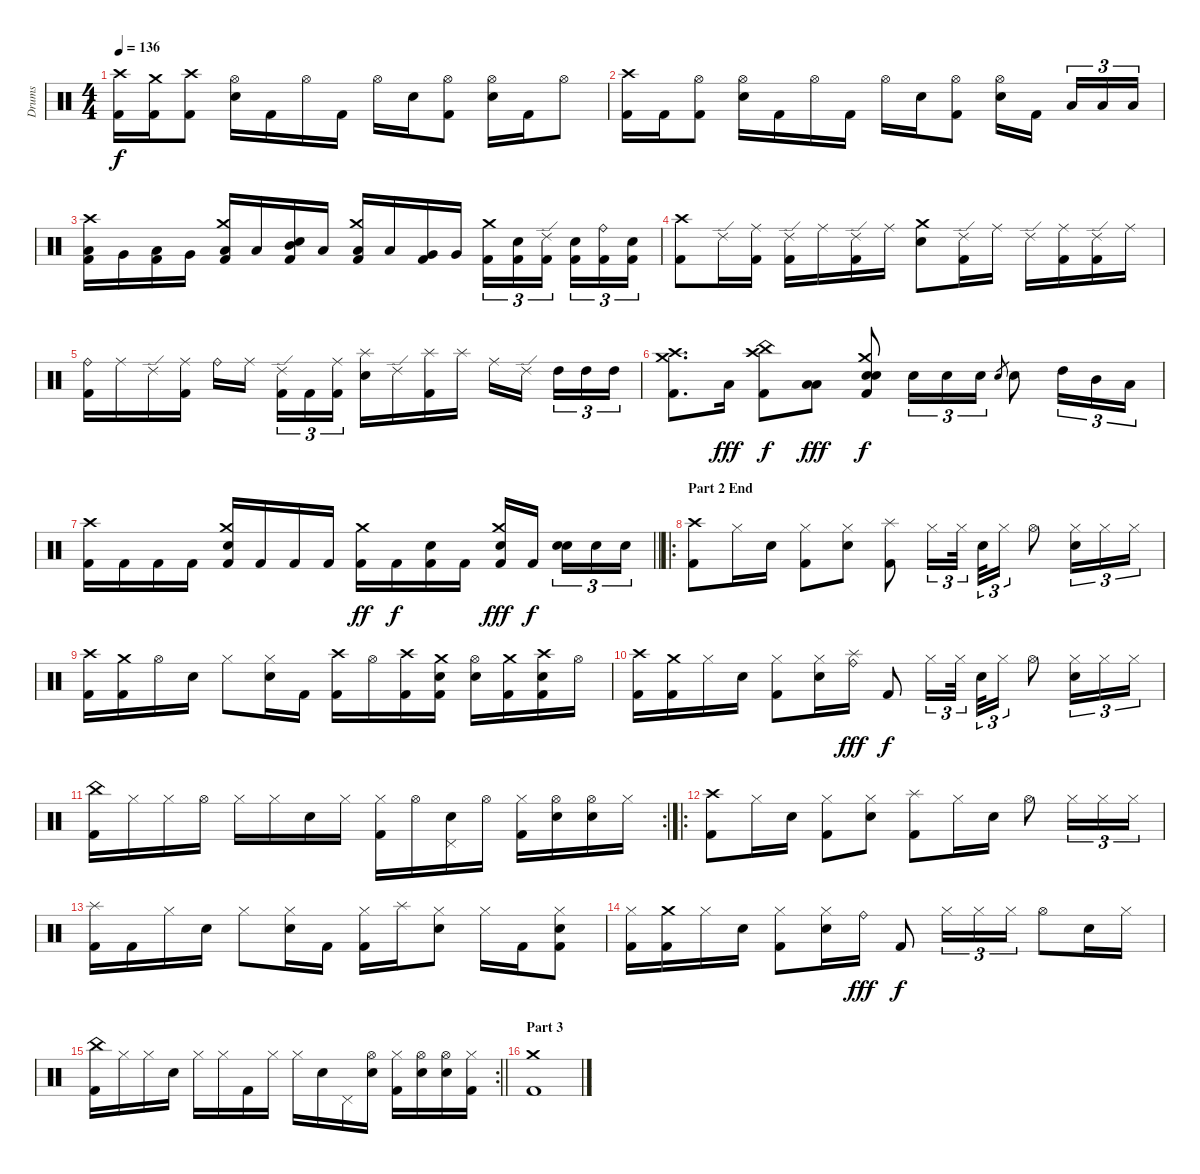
\track ("Drums" "Drums") {instrument percussion}
\staff {score}
\articulation defaults
\ts (4 4)
\tempo 136
\clef neutral
\ks c
("Crash high (hit)" "Kick (hit) 2").16{dy f} ("Crash medium (hit)" "Kick (hit) 2").16 ("Crash high (hit)" "Kick (hit) 2").8 ("Hi-Hat (open)" "Electric Snare (hit)").16 "Kick (hit) 2".16 "Hi-Hat (open)".16 "Kick (hit) 2".16 "Hi-Hat (open)".16 "Electric Snare (hit)".16 ("Hi-Hat (open)" "Kick (hit) 2").8 ("Hi-Hat (open)" "Electric Snare (hit)").16 "Kick (hit) 2".16 "Hi-Hat (open)".8 |
("Crash high (hit)" "Kick (hit) 2").16 "Kick (hit) 2".16 ("Hi-Hat (open)" "Kick (hit) 2").8 ("Hi-Hat (open)" "Electric Snare (hit)").16 "Kick (hit) 2".16 "Hi-Hat (open)".16 "Kick (hit) 2".16 "Hi-Hat (open)".16 "Electric Snare (hit)".16 ("Hi-Hat (open)" "Kick (hit) 2").8 ("Hi-Hat (open)" "Electric Snare (hit)").16 "Kick (hit) 2".16{beam splitsecondary} "Low Tom (hit)".16{tu (3 2)} "Low Tom (hit)".16{tu (3 2)} "Low Tom (hit)".16{tu (3 2)} |
("Crash high (hit)" "Low Tom (hit)" "Kick (hit) 2").16 "Very Low Tom (hit)".16 ("Low Floor Tom (hit)" "Kick (hit) 2").16 "Very Low Tom (hit)".16 ("Crash medium (hit)" "Low Floor Tom (hit)" "Kick (hit) 2").16 "Low Floor Tom (hit)".16 ("Mid Tom (hit)" "Electric Snare (hit)" "Kick (hit) 2").16 "Low Floor Tom (hit)".16 ("Crash medium (hit)" "Low Floor Tom (hit)" "Kick (hit) 2").16 "Low Tom (hit)".16 ("Very Low Tom (hit)" "Kick (hit) 2").16 "Very Low Tom (hit)".16 ("Crash medium (hit)" "Kick (hit) 2").16{tu (3 2)} ("Electric Snare (hit)" "Kick (hit) 2").16{tu (3 2)} ("Ride (edge) 2" "Kick (hit) 2").16{tu (3 2) beam splitsecondary} ("Electric Snare (hit)" "Kick (hit) 2").16{tu (3 2)} ("Ride (bell)" "Kick (hit) 2").16{tu (3 2)} ("Electric Snare (hit)" "Kick (hit) 2").16{tu (3 2)} |
("Crash high (hit)" "Kick (hit) 2").8 "Ride (edge) 2".16 ("Ride (middle)" "Kick (hit) 2").16 ("Ride (edge) 2" "Kick (hit) 2").16 "Ride (middle)".16 ("Ride (edge) 2" "Kick (hit) 2").16 "Ride (middle)".16 ("Crash medium (hit)" "Electric Snare (hit)").8 ("Ride (edge) 2" "Kick (hit) 2").16 "Ride (middle)".16 "Ride (edge) 2".16 ("Ride (middle)" "Kick (hit) 2").16 ("Ride (edge) 2" "Kick (hit) 2").16 "Ride (middle)".16 |
("Ride (bell)" "Kick (hit) 2").16 "Ride (middle)".16 "Ride (edge) 2".16 ("Ride (middle)" "Kick (hit) 2").16 "Ride (bell)".16 "Ride (middle)".16{beam splitsecondary} ("Ride (edge) 2" "Kick (hit) 2").16{tu (3 2)} "Kick (hit) 2".16{tu (3 2)} ("Ride (middle)" "Kick (hit) 2").16{tu (3 2)} ("Splash (hit)" "Electric Snare (hit)").16 "Ride (edge) 2".16 ("Splash (hit)" "Kick (hit) 2").16 "Splash (hit)".16 "Ride (middle)".16 "Ride (edge) 2".16{beam splitsecondary} "High Tom (hit)".16{tu (3 2)} "High Tom (hit)".16{tu (3 2)} "High Tom (hit)".16{tu (3 2)} |
("Crash high (hit)" "Crash medium (hit)" "Kick (hit) 2").8{d} "Low Floor Tom (hit)".16{dy fff} ("Crash high (hit)" "China (hit)" "Kick (hit) 2").8{dy f} ("Low Tom (hit)" "Low Floor Tom (hit)").8{dy fff} ("Crash medium (hit)" "Snare (hit) 2" "Electric Snare (hit)" "Kick (hit) 2").8{dy f} "Electric Snare (hit)".16{tu (3 2)} "Electric Snare (hit)".16{tu (3 2)} "Electric Snare (hit)".16{tu (3 2)} "Electric Snare (hit)".8{gr} "Electric Snare (hit)".8 "High Tom (hit)".16{tu (3 2)} "Mid Tom (hit)".16{tu (3 2)} "Low Tom (hit)".16{tu (3 2)} |
\barLineRight lightlight
("Crash high (hit)" "Kick (hit) 2").16 "Kick (hit) 2".16 "Kick (hit) 2".16 "Kick (hit) 2".16 ("Crash medium (hit)" "Electric Snare (hit)" "Kick (hit) 2").16 "Kick (hit) 2".16 "Kick (hit) 2".16 "Kick (hit) 2".16 ("Crash medium (hit)" "Kick (hit) 2").16{dy ff} "Kick (hit) 2".16{dy f} ("Electric Snare (hit)" "Kick (hit) 2").16 "Kick (hit) 2".16 ("Crash medium (hit)" "Electric Snare (hit)" "Kick (hit) 2").16{dy fff} "Kick (hit) 2".16{dy f beam splitsecondary} ("Snare (hit) 2" "Electric Snare (hit)").16{tu (3 2)} "Electric Snare (hit)".16{tu (3 2)} "Electric Snare (hit)".16{tu (3 2)} |
\ro
\section ("" "Part 2 End")
("Crash high (hit)" "Kick (hit) 2").8 "Hi-Hat (closed)".16 "Electric Snare (hit)".16 ("Hi-Hat (closed)" "Kick (hit) 2").8 ("Hi-Hat (closed)" "Electric Snare (hit)").8 ("Splash (hit)" "Kick (hit) 2").8 "Hi-Hat (closed)".16{tu (3 2)} "Hi-Hat (closed)".32{tu (3 2) beam splitsecondary} "Electric Snare (hit)".32{tu (3 2)} "Hi-Hat (closed)".16{tu (3 2)} "Hi-Hat (open)".8 ("Hi-Hat (closed)" "Electric Snare (hit)").16{tu (3 2)} "Hi-Hat (closed)".16{tu (3 2)} "Hi-Hat (closed)".16{tu (3 2)} |
("Crash high (hit)" "Kick (hit) 2").16 ("Crash medium (hit)" "Kick (hit) 2").16 "Hi-Hat (open)".16 "Electric Snare (hit)".16 "Hi-Hat (closed)".8 ("Hi-Hat (closed)" "Electric Snare (hit)").16 "Kick (hit) 2".16 ("Crash high (hit)" "Kick (hit) 2").16 "Hi-Hat (open)".16 ("Crash high (hit)" "Kick (hit) 2").16 ("Crash medium (hit)" "Electric Snare (hit)" "Kick (hit) 2").16 ("Hi-Hat (open)" "Electric Snare (hit)").16 ("Crash medium (hit)" "Kick (hit) 2").16 ("Crash high (hit)" "Electric Snare (hit)" "Kick (hit) 2").16 "Hi-Hat (open)".16 |
("Crash high (hit)" "Kick (hit) 2").16 ("Crash medium (hit)" "Kick (hit) 2").16 "Hi-Hat (closed)".16 "Electric Snare (hit)".16 ("Hi-Hat (closed)" "Kick (hit) 2").8 ("Hi-Hat (closed)" "Electric Snare (hit)").16 ("Splash (hit)" "Ride (bell)").16{dy fff} "Kick (hit) 2".8{dy f} "Hi-Hat (closed)".16{tu (3 2)} "Hi-Hat (closed)".32{tu (3 2) beam splitsecondary} "Electric Snare (hit)".32{tu (3 2)} "Hi-Hat (closed)".16{tu (3 2)} "Hi-Hat (open)".8 ("Hi-Hat (closed)" "Electric Snare (hit)").16{tu (3 2)} "Hi-Hat (closed)".16{tu (3 2)} "Hi-Hat (closed)".16{tu (3 2)} |
\rc 2
("China (hit)" "Kick (hit) 2").16 "Hi-Hat (closed)".16 "Hi-Hat (closed)".16 "Hi-Hat (open)".16 "Hi-Hat (closed)".16 "Hi-Hat (closed)".16 "Electric Snare (hit)".16 "Hi-Hat (closed)".16 ("Hi-Hat (closed)" "Kick (hit) 2").16 "Hi-Hat (open)".16 ("Pedal Hi-Hat (hit)" "Electric Snare (hit)").16 "Hi-Hat (open)".16 ("Hi-Hat (closed)" "Kick (hit) 2").16 ("Hi-Hat (open)" "Electric Snare (hit)").16 ("Hi-Hat (open)" "Electric Snare (hit)").16 "Hi-Hat (closed)".16 |
\ro
("Crash high (hit)" "Kick (hit) 2").8 "Hi-Hat (closed)".16 "Electric Snare (hit)".16 ("Hi-Hat (closed)" "Kick (hit) 2").8 ("Hi-Hat (closed)" "Electric Snare (hit)").8 ("Splash (hit)" "Kick (hit) 2").8 "Hi-Hat (closed)".16 "Electric Snare (hit)".16 "Hi-Hat (open)".8 "Hi-Hat (closed)".16{tu (3 2)} "Hi-Hat (closed)".16{tu (3 2)} "Hi-Hat (closed)".16{tu (3 2)} |
("Splash (hit)" "Kick (hit) 2").16 "Kick (hit) 2".16 "Hi-Hat (closed)".16 "Electric Snare (hit)".16 "Hi-Hat (closed)".8 ("Hi-Hat (closed)" "Electric Snare (hit)").16 "Kick (hit) 2".16 ("Hi-Hat (closed)" "Kick (hit) 2").16 "Splash (hit)".16 ("Hi-Hat (closed)" "Electric Snare (hit)").8 "Hi-Hat (closed)".16 "Kick (hit) 2".16 ("Hi-Hat (closed)" "Electric Snare (hit)" "Kick (hit) 2").8 |
("Hi-Hat (closed)" "Kick (hit) 2").16 ("Crash medium (hit)" "Kick (hit) 2").16 "Hi-Hat (closed)".16 "Electric Snare (hit)".16 ("Hi-Hat (closed)" "Kick (hit) 2").8 ("Hi-Hat (closed)" "Electric Snare (hit)").16 "Ride (bell)".16{dy fff} "Kick (hit) 2".8{dy f} "Hi-Hat (closed)".16{tu (3 2)} "Hi-Hat (closed)".16{tu (3 2)} "Hi-Hat (closed)".16{tu (3 2)} "Hi-Hat (open)".8 "Electric Snare (hit)".16 "Hi-Hat (closed)".16 |
\rc 2
\barLineRight lightlight
("China (hit)" "Kick (hit) 2").16 "Hi-Hat (closed)".16 "Hi-Hat (closed)".16 "Electric Snare (hit)".16 "Hi-Hat (closed)".16 "Hi-Hat (closed)".16 "Kick (hit) 2".16 "Hi-Hat (closed)".16 "Hi-Hat (closed)".16 "Electric Snare (hit)".16 "Pedal Hi-Hat (hit)".16 ("Hi-Hat (open)" "Electric Snare (hit)").16 ("Hi-Hat (closed)" "Kick (hit) 2").16 ("Hi-Hat (open)" "Electric Snare (hit)").16 ("Hi-Hat (open)" "Electric Snare (hit)").16 ("Hi-Hat (closed)" "Kick (hit) 2").16 |
\section ("" "Part 3")
("Crash medium (hit)" "Kick (hit) 2").1
